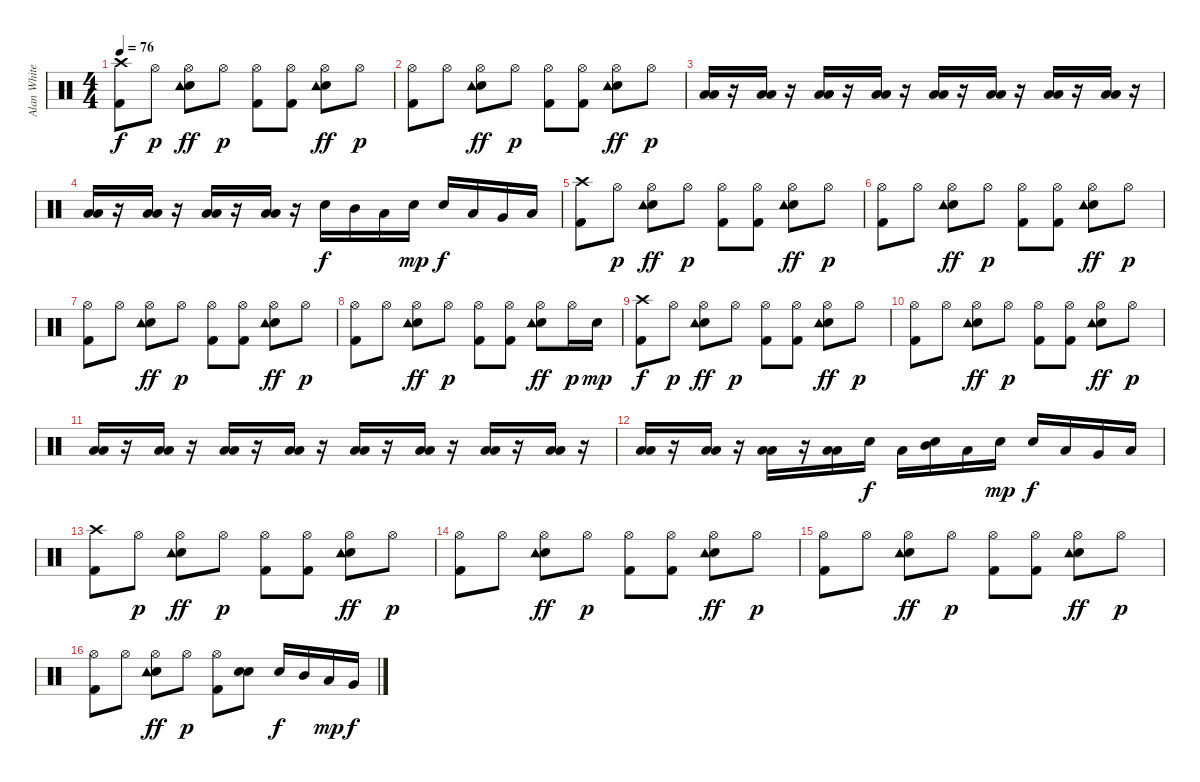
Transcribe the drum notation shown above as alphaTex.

\track ("Alan White" "Alan White") {instrument percussion}
\staff {score}
\articulation defaults
\ts (4 4)
\tempo 76
\clef neutral
\ks c
("Crash high (hit)" "Kick (hit) 2").8{dy f} "Hi-Hat (open)".8{dy p} ("Hi-Hat (open)" "Snare (hit) 2" "Tambourine (hit)").8{dy ff} "Hi-Hat (open)".8{dy p} ("Hi-Hat (open)" "Kick (hit) 2").8 ("Hi-Hat (open)" "Kick (hit) 2").8 ("Hi-Hat (open)" "Snare (hit) 2" "Tambourine (hit)").8{dy ff} "Hi-Hat (open)".8{dy p} |
("Hi-Hat (open)" "Kick (hit) 2").8 "Hi-Hat (open)".8 ("Hi-Hat (open)" "Snare (hit) 2" "Tambourine (hit)").8{dy ff} "Hi-Hat (open)".8{dy p} ("Hi-Hat (open)" "Kick (hit) 2").8 ("Hi-Hat (open)" "Kick (hit) 2").8 ("Hi-Hat (open)" "Snare (hit) 2" "Tambourine (hit)").8{dy ff} "Hi-Hat (open)".8{dy p} |
("Low Tom (hit)" "Low Floor Tom (hit)").16{volume 16} r.16 ("Low Tom (hit)" "Low Floor Tom (hit)").16 r.16 ("Low Tom (hit)" "Low Floor Tom (hit)").16 r.16 ("Low Tom (hit)" "Low Floor Tom (hit)").16 r.16 ("Low Tom (hit)" "Low Floor Tom (hit)").16 r.16 ("Low Tom (hit)" "Low Floor Tom (hit)").16 r.16 ("Low Tom (hit)" "Low Floor Tom (hit)").16 r.16 ("Low Tom (hit)" "Low Floor Tom (hit)").16 r.16 |
("Low Tom (hit)" "Low Floor Tom (hit)").16 r.16 ("Low Tom (hit)" "Low Floor Tom (hit)").16 r.16 ("Low Tom (hit)" "Low Floor Tom (hit)").16 r.16 ("Low Tom (hit)" "Low Floor Tom (hit)").16 r.16 "Snare (hit) 2".16{dy f} "Mid Tom (hit)".16 "Low Tom (hit)".16 "Snare (hit) 2".16{dy mp} "Snare (hit) 2".16{dy f} "Low Tom (hit)".16 "Very Low Tom (hit)".16 "Low Floor Tom (hit)".16 |
("Crash high (hit)" "Kick (hit) 2").8 "Hi-Hat (open)".8{dy p} ("Hi-Hat (open)" "Snare (hit) 2" "Tambourine (hit)").8{dy ff} "Hi-Hat (open)".8{dy p} ("Hi-Hat (open)" "Kick (hit) 2").8 ("Hi-Hat (open)" "Kick (hit) 2").8 ("Hi-Hat (open)" "Snare (hit) 2" "Tambourine (hit)").8{dy ff} "Hi-Hat (open)".8{dy p} |
("Hi-Hat (open)" "Kick (hit) 2").8 "Hi-Hat (open)".8 ("Hi-Hat (open)" "Snare (hit) 2" "Tambourine (hit)").8{dy ff} "Hi-Hat (open)".8{dy p} ("Hi-Hat (open)" "Kick (hit) 2").8 ("Hi-Hat (open)" "Kick (hit) 2").8 ("Hi-Hat (open)" "Snare (hit) 2" "Tambourine (hit)").8{dy ff} "Hi-Hat (open)".8{dy p} |
("Hi-Hat (open)" "Kick (hit) 2").8 "Hi-Hat (open)".8 ("Hi-Hat (open)" "Snare (hit) 2" "Tambourine (hit)").8{dy ff} "Hi-Hat (open)".8{dy p} ("Hi-Hat (open)" "Kick (hit) 2").8 ("Hi-Hat (open)" "Kick (hit) 2").8 ("Hi-Hat (open)" "Snare (hit) 2" "Tambourine (hit)").8{dy ff} "Hi-Hat (open)".8{dy p} |
("Hi-Hat (open)" "Kick (hit) 2").8 "Hi-Hat (open)".8 ("Hi-Hat (open)" "Snare (hit) 2" "Tambourine (hit)").8{dy ff} "Hi-Hat (open)".8{dy p} ("Hi-Hat (open)" "Kick (hit) 2").8 ("Hi-Hat (open)" "Kick (hit) 2").8 ("Hi-Hat (open)" "Snare (hit) 2" "Tambourine (hit)").8{dy ff} "Hi-Hat (open)".16{dy p} "Snare (hit) 2".16{dy mp} |
("Crash high (hit)" "Kick (hit) 2").8{dy f} "Hi-Hat (open)".8{dy p} ("Hi-Hat (open)" "Snare (hit) 2" "Tambourine (hit)").8{dy ff} "Hi-Hat (open)".8{dy p} ("Hi-Hat (open)" "Kick (hit) 2").8 ("Hi-Hat (open)" "Kick (hit) 2").8 ("Hi-Hat (open)" "Snare (hit) 2" "Tambourine (hit)").8{dy ff} "Hi-Hat (open)".8{dy p} |
("Hi-Hat (open)" "Kick (hit) 2").8 "Hi-Hat (open)".8 ("Hi-Hat (open)" "Snare (hit) 2" "Tambourine (hit)").8{dy ff} "Hi-Hat (open)".8{dy p} ("Hi-Hat (open)" "Kick (hit) 2").8 ("Hi-Hat (open)" "Kick (hit) 2").8 ("Hi-Hat (open)" "Snare (hit) 2" "Tambourine (hit)").8{dy ff} "Hi-Hat (open)".8{dy p} |
("Low Tom (hit)" "Low Floor Tom (hit)").16{volume 16} r.16 ("Low Tom (hit)" "Low Floor Tom (hit)").16 r.16 ("Low Tom (hit)" "Low Floor Tom (hit)").16 r.16 ("Low Tom (hit)" "Low Floor Tom (hit)").16 r.16 ("Low Tom (hit)" "Low Floor Tom (hit)").16 r.16 ("Low Tom (hit)" "Low Floor Tom (hit)").16 r.16 ("Low Tom (hit)" "Low Floor Tom (hit)").16 r.16 ("Low Tom (hit)" "Low Floor Tom (hit)").16 r.16 |
("Low Tom (hit)" "Low Floor Tom (hit)").16 r.16 ("Low Tom (hit)" "Low Floor Tom (hit)").16 r.16 ("Low Tom (hit)" "Low Floor Tom (hit)").16 r.16 ("Low Tom (hit)" "Low Floor Tom (hit)").16 "Snare (hit)".16{dy f} "Low Tom (hit)".16 ("Snare (hit) 2" "Mid Tom (hit)").16 "Low Tom (hit)".16 "Snare (hit) 2".16{dy mp} "Snare (hit) 2".16{dy f} "Low Tom (hit)".16 "Very Low Tom (hit)".16 "Low Floor Tom (hit)".16 |
("Crash high (hit)" "Kick (hit) 2").8 "Hi-Hat (open)".8{dy p} ("Hi-Hat (open)" "Snare (hit) 2" "Tambourine (hit)").8{dy ff} "Hi-Hat (open)".8{dy p} ("Hi-Hat (open)" "Kick (hit) 2").8 ("Hi-Hat (open)" "Kick (hit) 2").8 ("Hi-Hat (open)" "Snare (hit) 2" "Tambourine (hit)").8{dy ff} "Hi-Hat (open)".8{dy p} |
("Hi-Hat (open)" "Kick (hit) 2").8 "Hi-Hat (open)".8 ("Hi-Hat (open)" "Snare (hit) 2" "Tambourine (hit)").8{dy ff} "Hi-Hat (open)".8{dy p} ("Hi-Hat (open)" "Kick (hit) 2").8 ("Hi-Hat (open)" "Kick (hit) 2").8 ("Hi-Hat (open)" "Snare (hit) 2" "Tambourine (hit)").8{dy ff} "Hi-Hat (open)".8{dy p} |
("Hi-Hat (open)" "Kick (hit) 2").8 "Hi-Hat (open)".8 ("Hi-Hat (open)" "Snare (hit) 2" "Tambourine (hit)").8{dy ff} "Hi-Hat (open)".8{dy p} ("Hi-Hat (open)" "Kick (hit) 2").8 ("Hi-Hat (open)" "Kick (hit) 2").8 ("Hi-Hat (open)" "Snare (hit) 2" "Tambourine (hit)").8{dy ff} "Hi-Hat (open)".8{dy p} |
("Hi-Hat (open)" "Kick (hit) 2").8 "Hi-Hat (open)".8 ("Hi-Hat (open)" "Snare (hit) 2" "Tambourine (hit)").8{dy ff} "Hi-Hat (open)".8{dy p} ("Hi-Hat (open)" "Kick (hit) 2").8 ("Snare (hit) 2" "Snare (hit) 2").8 "Snare (hit) 2".16{dy f} "Mid Tom (hit)".16 "Low Tom (hit)".16{dy mp} "Very Low Tom (hit)".16{dy f}
